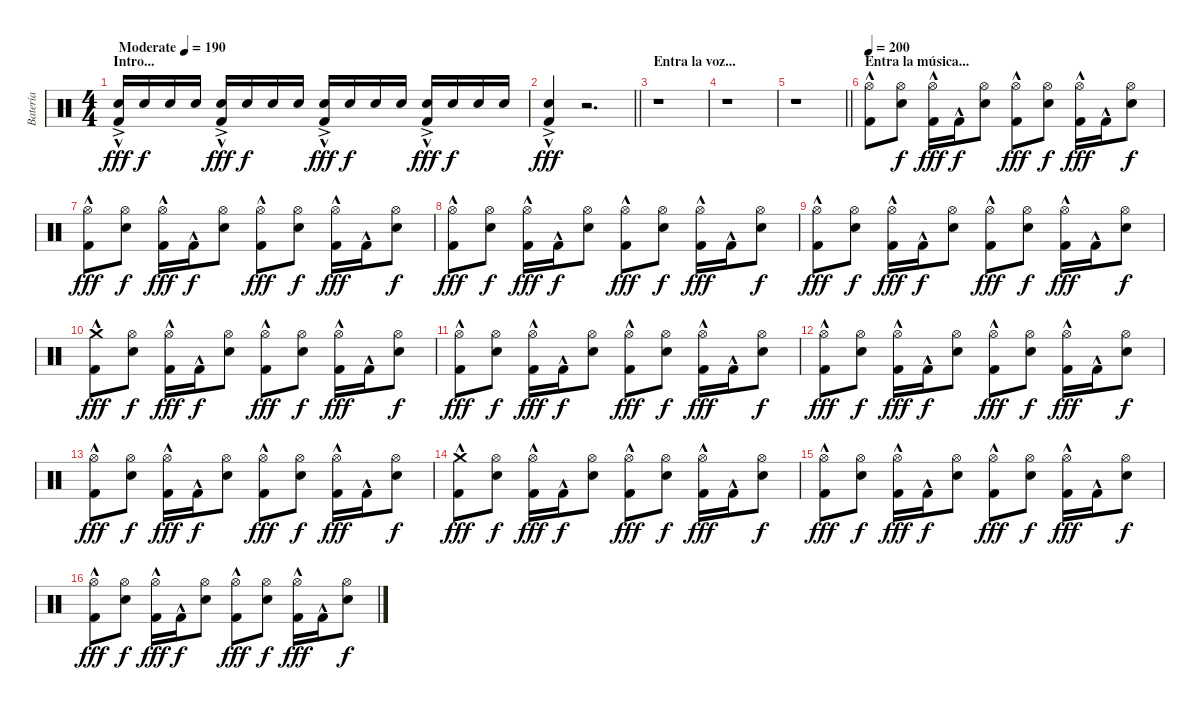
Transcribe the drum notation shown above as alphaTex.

\track ("Batería" "Batería") {instrument percussion}
\staff {score}
\articulation defaults
\ts (4 4)
\section ("" "Intro...")
\tempo (190 "Moderate")
\clef neutral
\ks c
("Snare (hit) 2"{ac} "Kick (hit) 2"{hac}).16{dy fff} "Snare (hit) 2".16{dy f} "Snare (hit) 2".16 "Snare (hit) 2".16 ("Snare (hit) 2"{ac} "Kick (hit) 2"{hac}).16{dy fff} "Snare (hit) 2".16{dy f} "Snare (hit) 2".16 "Snare (hit) 2".16 ("Snare (hit) 2"{ac} "Kick (hit) 2"{hac}).16{dy fff} "Snare (hit) 2".16{dy f} "Snare (hit) 2".16 "Snare (hit) 2".16 ("Snare (hit) 2"{ac} "Kick (hit) 2"{hac}).16{dy fff} "Snare (hit) 2".16{dy f} "Snare (hit) 2".16 "Snare (hit) 2".16 |
\barLineRight lightlight
("Snare (hit) 2"{ac} "Kick (hit) 2"{hac}).4{dy fff} r.2{d} |
\section ("" "Entra la voz...")
r.1 |
r.1 |
\barLineRight lightlight
r.1 |
\section ("" "Entra la música...")
\tempo 200
("Hi-Hat (open)" "Kick (hit) 2"{hac}).8 ("Snare (hit) 2" "Hi-Hat (open)").8{dy f} ("Hi-Hat (open)" "Kick (hit) 2"{hac}).16{dy fff} "Kick (hit) 2"{hac}.16{dy f} ("Snare (hit) 2" "Hi-Hat (open)").8 ("Hi-Hat (open)" "Kick (hit) 2"{hac}).8{dy fff} ("Snare (hit) 2" "Hi-Hat (open)").8{dy f} ("Hi-Hat (open)" "Kick (hit) 2"{hac}).16{dy fff} "Kick (hit) 2"{hac}.16 ("Snare (hit) 2" "Hi-Hat (open)").8{dy f} |
("Hi-Hat (open)" "Kick (hit) 2"{hac}).8{dy fff} ("Snare (hit) 2" "Hi-Hat (open)").8{dy f} ("Hi-Hat (open)" "Kick (hit) 2"{hac}).16{dy fff} "Kick (hit) 2"{hac}.16{dy f} ("Snare (hit) 2" "Hi-Hat (open)").8 ("Hi-Hat (open)" "Kick (hit) 2"{hac}).8{dy fff} ("Snare (hit) 2" "Hi-Hat (open)").8{dy f} ("Hi-Hat (open)" "Kick (hit) 2"{hac}).16{dy fff} "Kick (hit) 2"{hac}.16 ("Snare (hit) 2" "Hi-Hat (open)").8{dy f} |
("Hi-Hat (open)" "Kick (hit) 2"{hac}).8{dy fff} ("Snare (hit) 2" "Hi-Hat (open)").8{dy f} ("Hi-Hat (open)" "Kick (hit) 2"{hac}).16{dy fff} "Kick (hit) 2"{hac}.16{dy f} ("Snare (hit) 2" "Hi-Hat (open)").8 ("Hi-Hat (open)" "Kick (hit) 2"{hac}).8{dy fff} ("Snare (hit) 2" "Hi-Hat (open)").8{dy f} ("Hi-Hat (open)" "Kick (hit) 2"{hac}).16{dy fff} "Kick (hit) 2"{hac}.16 ("Snare (hit) 2" "Hi-Hat (open)").8{dy f} |
("Hi-Hat (open)" "Kick (hit) 2"{hac}).8{dy fff} ("Snare (hit) 2" "Hi-Hat (open)").8{dy f} ("Hi-Hat (open)" "Kick (hit) 2"{hac}).16{dy fff} "Kick (hit) 2"{hac}.16{dy f} ("Snare (hit) 2" "Hi-Hat (open)").8 ("Hi-Hat (open)" "Kick (hit) 2"{hac}).8{dy fff} ("Snare (hit) 2" "Hi-Hat (open)").8{dy f} ("Hi-Hat (open)" "Kick (hit) 2"{hac}).16{dy fff} "Kick (hit) 2"{hac}.16 ("Snare (hit) 2" "Hi-Hat (open)").8{dy f} |
("Crash medium (hit)"{hac} "Kick (hit) 2"{hac}).8{dy fff} ("Snare (hit) 2" "Hi-Hat (open)").8{dy f} ("Hi-Hat (open)" "Kick (hit) 2"{hac}).16{dy fff} "Kick (hit) 2"{hac}.16{dy f} ("Snare (hit) 2" "Hi-Hat (open)").8 ("Hi-Hat (open)" "Kick (hit) 2"{hac}).8{dy fff} ("Snare (hit) 2" "Hi-Hat (open)").8{dy f} ("Hi-Hat (open)" "Kick (hit) 2"{hac}).16{dy fff} "Kick (hit) 2"{hac}.16 ("Snare (hit) 2" "Hi-Hat (open)").8{dy f} |
("Hi-Hat (open)" "Kick (hit) 2"{hac}).8{dy fff} ("Snare (hit) 2" "Hi-Hat (open)").8{dy f} ("Hi-Hat (open)" "Kick (hit) 2"{hac}).16{dy fff} "Kick (hit) 2"{hac}.16{dy f} ("Snare (hit) 2" "Hi-Hat (open)").8 ("Hi-Hat (open)" "Kick (hit) 2"{hac}).8{dy fff} ("Snare (hit) 2" "Hi-Hat (open)").8{dy f} ("Hi-Hat (open)" "Kick (hit) 2"{hac}).16{dy fff} "Kick (hit) 2"{hac}.16 ("Snare (hit) 2" "Hi-Hat (open)").8{dy f} |
("Hi-Hat (open)" "Kick (hit) 2"{hac}).8{dy fff} ("Snare (hit) 2" "Hi-Hat (open)").8{dy f} ("Hi-Hat (open)" "Kick (hit) 2"{hac}).16{dy fff} "Kick (hit) 2"{hac}.16{dy f} ("Snare (hit) 2" "Hi-Hat (open)").8 ("Hi-Hat (open)" "Kick (hit) 2"{hac}).8{dy fff} ("Snare (hit) 2" "Hi-Hat (open)").8{dy f} ("Hi-Hat (open)" "Kick (hit) 2"{hac}).16{dy fff} "Kick (hit) 2"{hac}.16 ("Snare (hit) 2" "Hi-Hat (open)").8{dy f} |
("Hi-Hat (open)" "Kick (hit) 2"{hac}).8{dy fff} ("Snare (hit) 2" "Hi-Hat (open)").8{dy f} ("Hi-Hat (open)" "Kick (hit) 2"{hac}).16{dy fff} "Kick (hit) 2"{hac}.16{dy f} ("Snare (hit) 2" "Hi-Hat (open)").8 ("Hi-Hat (open)" "Kick (hit) 2"{hac}).8{dy fff} ("Snare (hit) 2" "Hi-Hat (open)").8{dy f} ("Hi-Hat (open)" "Kick (hit) 2"{hac}).16{dy fff} "Kick (hit) 2"{hac}.16 ("Snare (hit) 2" "Hi-Hat (open)").8{dy f} |
("Crash medium (hit)"{hac} "Kick (hit) 2"{hac}).8{dy fff} ("Snare (hit) 2" "Hi-Hat (open)").8{dy f} ("Hi-Hat (open)" "Kick (hit) 2"{hac}).16{dy fff} "Kick (hit) 2"{hac}.16{dy f} ("Snare (hit) 2" "Hi-Hat (open)").8 ("Hi-Hat (open)" "Kick (hit) 2"{hac}).8{dy fff} ("Snare (hit) 2" "Hi-Hat (open)").8{dy f} ("Hi-Hat (open)" "Kick (hit) 2"{hac}).16{dy fff} "Kick (hit) 2"{hac}.16 ("Snare (hit) 2" "Hi-Hat (open)").8{dy f} |
("Hi-Hat (open)" "Kick (hit) 2"{hac}).8{dy fff} ("Snare (hit) 2" "Hi-Hat (open)").8{dy f} ("Hi-Hat (open)" "Kick (hit) 2"{hac}).16{dy fff} "Kick (hit) 2"{hac}.16{dy f} ("Snare (hit) 2" "Hi-Hat (open)").8 ("Hi-Hat (open)" "Kick (hit) 2"{hac}).8{dy fff} ("Snare (hit) 2" "Hi-Hat (open)").8{dy f} ("Hi-Hat (open)" "Kick (hit) 2"{hac}).16{dy fff} "Kick (hit) 2"{hac}.16 ("Snare (hit) 2" "Hi-Hat (open)").8{dy f} |
("Hi-Hat (open)" "Kick (hit) 2"{hac}).8{dy fff} ("Snare (hit) 2" "Hi-Hat (open)").8{dy f} ("Hi-Hat (open)" "Kick (hit) 2"{hac}).16{dy fff} "Kick (hit) 2"{hac}.16{dy f} ("Snare (hit) 2" "Hi-Hat (open)").8 ("Hi-Hat (open)" "Kick (hit) 2"{hac}).8{dy fff} ("Snare (hit) 2" "Hi-Hat (open)").8{dy f} ("Hi-Hat (open)" "Kick (hit) 2"{hac}).16{dy fff} "Kick (hit) 2"{hac}.16 ("Snare (hit) 2" "Hi-Hat (open)").8{dy f}
